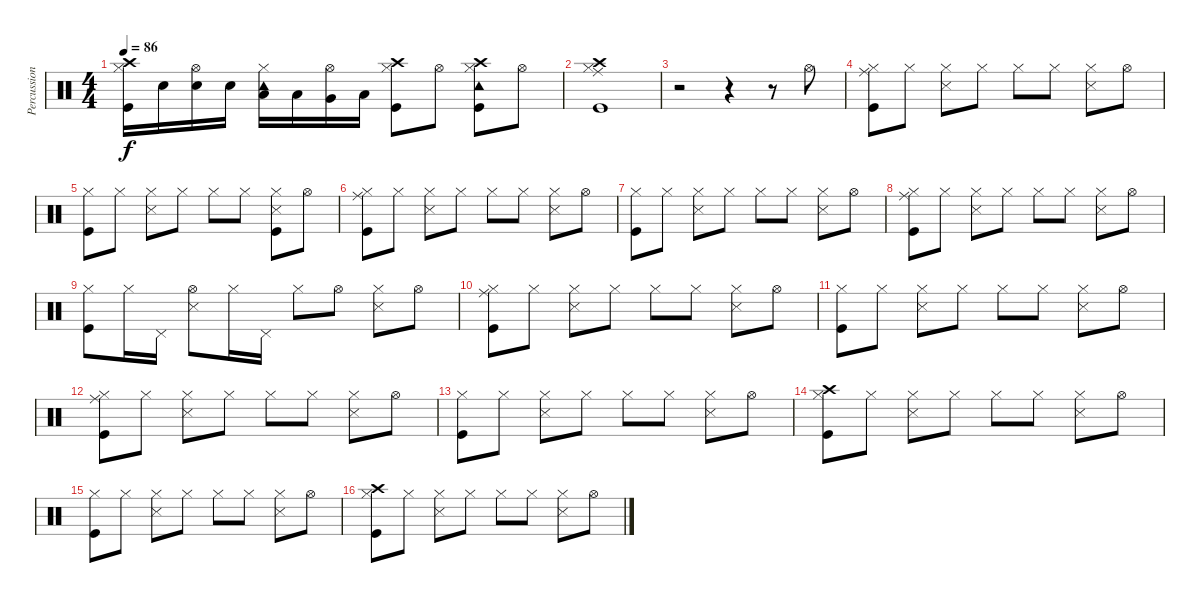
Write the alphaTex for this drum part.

\track ("Percussion" "Percussion") {instrument percussion}
\staff {score}
\articulation defaults
\ts (4 4)
\tempo 86
\clef neutral
\ks c
("Kick (hit)" "Hi-Hat (closed)" "Crash high (hit)").16{dy f} "Electric Snare (hit)".16 ("Electric Snare (hit)" "Hi-Hat (open)").16 "Electric Snare (hit)".16 ("Hi-Hat (closed)" "Low Tom (hit)" "Tambourine (hit)").16 "Low Tom (hit)".16 ("Very Low Tom (hit)" "Hi-Hat (open)").16 "Low Floor Tom (hit)".16 ("Hi-Hat (closed)" "Kick (hit)" "Crash high (hit)").8 "Hi-Hat (open)".8 ("Kick (hit)" "Crash high (hit)" "Tambourine (hit)" "Hi-Hat (closed)").8 "Hi-Hat (open)".8 |
("Kick (hit)" "Crash high (hit)" "Ride (middle)" "Hi-Hat (closed)").1 |
r.2 r.4 r.8 "Hi-Hat (open)".8 |
("Kick (hit)" "Ride (middle)" "Hi-Hat (closed)").8 "Hi-Hat (closed)".8 ("Hi-Hat (closed)" "Snare (side stick) 3").8 "Hi-Hat (closed)".8 "Hi-Hat (closed)".8 "Hi-Hat (closed)".8 ("Hi-Hat (closed)" "Snare (side stick) 3").8 "Hi-Hat (open)".8 |
("Kick (hit)" "Hi-Hat (closed)").8 "Hi-Hat (closed)".8 ("Hi-Hat (closed)" "Snare (side stick) 3").8 "Hi-Hat (closed)".8 "Hi-Hat (closed)".8 "Hi-Hat (closed)".8 ("Kick (hit)" "Hi-Hat (closed)" "Snare (side stick) 3").8 "Hi-Hat (open)".8 |
("Kick (hit)" "Ride (middle)" "Hi-Hat (closed)").8 "Hi-Hat (closed)".8 ("Hi-Hat (closed)" "Snare (side stick) 3").8 "Hi-Hat (closed)".8 "Hi-Hat (closed)".8 "Hi-Hat (closed)".8 ("Hi-Hat (closed)" "Snare (side stick) 3").8 "Hi-Hat (open)".8 |
("Kick (hit)" "Hi-Hat (closed)").8 "Hi-Hat (closed)".8 ("Hi-Hat (closed)" "Snare (side stick) 3").8 "Hi-Hat (closed)".8 "Hi-Hat (closed)".8 "Hi-Hat (closed)".8 ("Hi-Hat (closed)" "Snare (side stick) 3").8 "Hi-Hat (open)".8 |
("Kick (hit)" "Ride (middle)" "Hi-Hat (closed)").8 "Hi-Hat (closed)".8 ("Hi-Hat (closed)" "Snare (side stick) 3").8 "Hi-Hat (closed)".8 "Hi-Hat (closed)".8 "Hi-Hat (closed)".8 ("Hi-Hat (closed)" "Snare (side stick) 3").8 "Hi-Hat (open)".8 |
("Kick (hit)" "Hi-Hat (closed)").8 "Hi-Hat (closed)".16 "Pedal Hi-Hat (hit)".16 ("Hi-Hat (open)" "Snare (side stick) 3").8 "Hi-Hat (closed)".16 "Pedal Hi-Hat (hit)".16 "Hi-Hat (closed)".8 "Hi-Hat (open)".8 ("Hi-Hat (closed)" "Snare (side stick) 3").8 "Hi-Hat (open)".8 |
("Kick (hit)" "Ride (middle)" "Hi-Hat (closed)").8 "Hi-Hat (closed)".8 ("Hi-Hat (closed)" "Snare (side stick) 3").8 "Hi-Hat (closed)".8 "Hi-Hat (closed)".8 "Hi-Hat (closed)".8 ("Hi-Hat (closed)" "Snare (side stick) 3").8 "Hi-Hat (open)".8 |
("Kick (hit)" "Hi-Hat (closed)").8 "Hi-Hat (closed)".8 ("Hi-Hat (closed)" "Snare (side stick) 3").8 "Hi-Hat (closed)".8 "Hi-Hat (closed)".8 "Hi-Hat (closed)".8 ("Hi-Hat (closed)" "Snare (side stick) 3").8 "Hi-Hat (open)".8 |
("Kick (hit)" "Ride (middle)" "Hi-Hat (closed)").8 "Hi-Hat (closed)".8 ("Hi-Hat (closed)" "Snare (side stick) 3").8 "Hi-Hat (closed)".8 "Hi-Hat (closed)".8 "Hi-Hat (closed)".8 ("Hi-Hat (closed)" "Snare (side stick) 3").8 "Hi-Hat (open)".8 |
("Kick (hit)" "Hi-Hat (closed)").8 "Hi-Hat (closed)".8 ("Hi-Hat (closed)" "Snare (side stick) 3").8 "Hi-Hat (closed)".8 "Hi-Hat (closed)".8 "Hi-Hat (closed)".8 ("Hi-Hat (closed)" "Snare (side stick) 3").8 "Hi-Hat (open)".8 |
("Kick (hit)" "Crash high (hit)" "Hi-Hat (closed)").8 "Hi-Hat (closed)".8 ("Hi-Hat (closed)" "Snare (side stick) 3").8 "Hi-Hat (closed)".8 "Hi-Hat (closed)".8 "Hi-Hat (closed)".8 ("Hi-Hat (closed)" "Snare (side stick) 3").8 "Hi-Hat (open)".8 |
("Kick (hit)" "Hi-Hat (closed)").8 "Hi-Hat (closed)".8 ("Hi-Hat (closed)" "Snare (side stick) 3").8 "Hi-Hat (closed)".8 "Hi-Hat (closed)".8 "Hi-Hat (closed)".8 ("Hi-Hat (closed)" "Snare (side stick) 3").8 "Hi-Hat (open)".8 |
("Kick (hit)" "Crash high (hit)" "Hi-Hat (closed)").8 "Hi-Hat (closed)".8 ("Hi-Hat (closed)" "Snare (side stick) 3").8 "Hi-Hat (closed)".8 "Hi-Hat (closed)".8 "Hi-Hat (closed)".8 ("Hi-Hat (closed)" "Snare (side stick) 3").8 "Hi-Hat (open)".8
